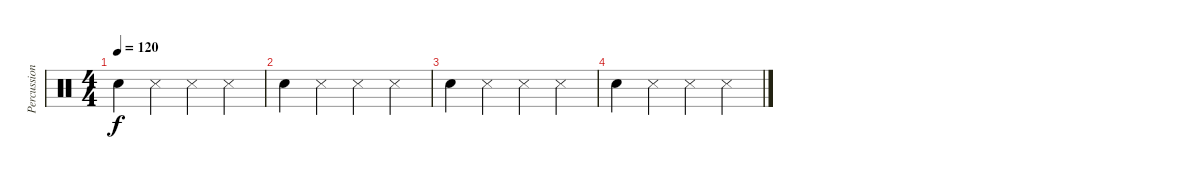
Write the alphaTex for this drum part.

\track ("Percussion" "Percussion") {instrument percussion}
\staff {score}
\articulation defaults
\ts (4 4)
\tempo 120
\clef neutral
\ks c "Snare (hit) 2".4{dy f} "Snare (side stick) 3".4 "Snare (side stick) 3".4 "Snare (side stick) 3".4
|
"Snare (hit) 2".4 "Snare (side stick) 3".4 "Snare (side stick) 3".4 "Snare (side stick) 3".4 |
"Snare (hit) 2".4 "Snare (side stick) 3".4 "Snare (side stick) 3".4 "Snare (side stick) 3".4 |
"Snare (hit) 2".4 "Snare (side stick) 3".4 "Snare (side stick) 3".4 "Snare (side stick) 3".4
